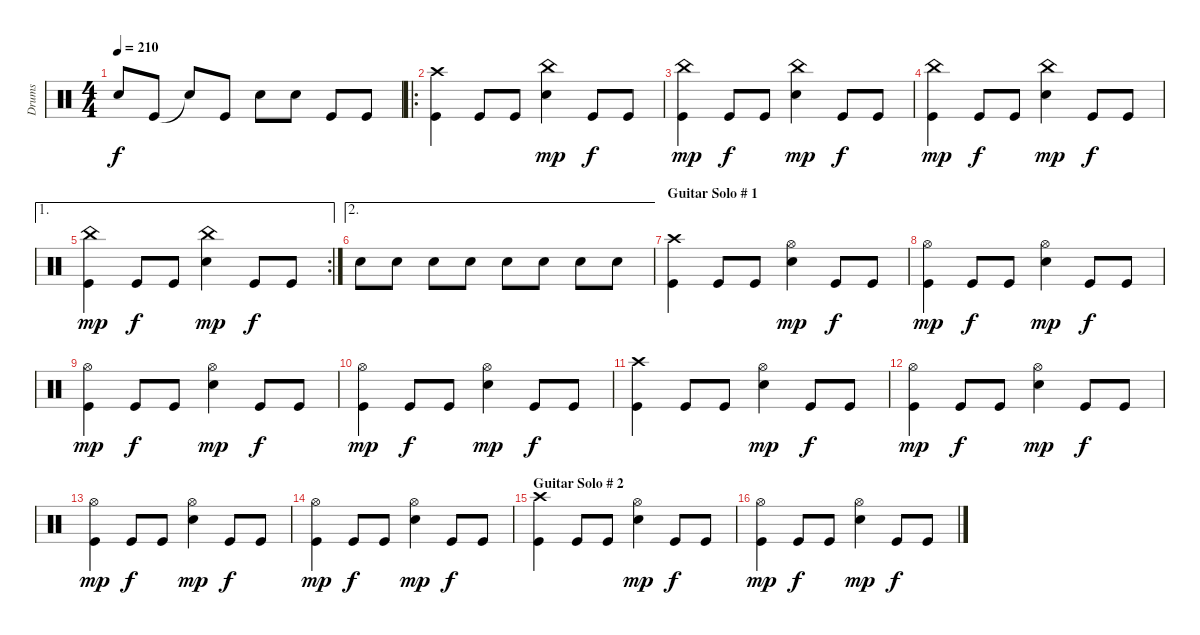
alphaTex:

\track ("Drums" "Drums") {instrument percussion}
\staff {score}
\articulation defaults
\ts (4 4)
\tempo 210
\clef neutral
\ks c "Electric Snare (hit)".8{dy f} "Kick (hit)".8 "Snare (hit)"{t}.8 "Kick (hit)".8 "Electric Snare (hit)".8 "Electric Snare (hit)".8 "Kick (hit)".8 "Kick (hit)".8
|
\ro
("Crash high (hit)" "Kick (hit)").4 "Kick (hit)".8 "Kick (hit)".8 ("China (hit)" "Electric Snare (hit)").4{dy mp} "Kick (hit)".8{dy f} "Kick (hit)".8 |
("China (hit)" "Kick (hit)").4{dy mp} "Kick (hit)".8{dy f} "Kick (hit)".8 ("China (hit)" "Electric Snare (hit)").4{dy mp} "Kick (hit)".8{dy f} "Kick (hit)".8 |
("China (hit)" "Kick (hit)").4{dy mp} "Kick (hit)".8{dy f} "Kick (hit)".8 ("China (hit)" "Electric Snare (hit)").4{dy mp} "Kick (hit)".8{dy f} "Kick (hit)".8 |
\ae 1
\rc 2
("China (hit)" "Kick (hit)").4{dy mp} "Kick (hit)".8{dy f} "Kick (hit)".8 ("China (hit)" "Electric Snare (hit)").4{dy mp} "Kick (hit)".8{dy f} "Kick (hit)".8 |
\ae 2 "Electric Snare (hit)".8 "Electric Snare (hit)".8 "Electric Snare (hit)".8 "Electric Snare (hit)".8 "Electric Snare (hit)".8 "Electric Snare (hit)".8 "Electric Snare (hit)".8 "Electric Snare (hit)".8
|
\section ("" "Guitar Solo # 1")
("Crash high (hit)" "Kick (hit)").4 "Kick (hit)".8 "Kick (hit)".8 ("Hi-Hat (open)" "Electric Snare (hit)").4{dy mp} "Kick (hit)".8{dy f} "Kick (hit)".8 |
("Hi-Hat (open)" "Kick (hit)").4{dy mp} "Kick (hit)".8{dy f} "Kick (hit)".8 ("Hi-Hat (open)" "Electric Snare (hit)").4{dy mp} "Kick (hit)".8{dy f} "Kick (hit)".8 |
("Hi-Hat (open)" "Kick (hit)").4{dy mp} "Kick (hit)".8{dy f} "Kick (hit)".8 ("Hi-Hat (open)" "Electric Snare (hit)").4{dy mp} "Kick (hit)".8{dy f} "Kick (hit)".8 |
("Hi-Hat (open)" "Kick (hit)").4{dy mp} "Kick (hit)".8{dy f} "Kick (hit)".8 ("Hi-Hat (open)" "Electric Snare (hit)").4{dy mp} "Kick (hit)".8{dy f} "Kick (hit)".8 |
("Crash high (hit)" "Kick (hit)").4 "Kick (hit)".8 "Kick (hit)".8 ("Hi-Hat (open)" "Electric Snare (hit)").4{dy mp} "Kick (hit)".8{dy f} "Kick (hit)".8 |
("Hi-Hat (open)" "Kick (hit)").4{dy mp} "Kick (hit)".8{dy f} "Kick (hit)".8 ("Hi-Hat (open)" "Electric Snare (hit)").4{dy mp} "Kick (hit)".8{dy f} "Kick (hit)".8 |
("Hi-Hat (open)" "Kick (hit)").4{dy mp} "Kick (hit)".8{dy f} "Kick (hit)".8 ("Hi-Hat (open)" "Electric Snare (hit)").4{dy mp} "Kick (hit)".8{dy f} "Kick (hit)".8 |
("Hi-Hat (open)" "Kick (hit)").4{dy mp} "Kick (hit)".8{dy f} "Kick (hit)".8 ("Hi-Hat (open)" "Electric Snare (hit)").4{dy mp} "Kick (hit)".8{dy f} "Kick (hit)".8 |
\section ("" "Guitar Solo # 2")
("Crash high (hit)" "Kick (hit)").4 "Kick (hit)".8 "Kick (hit)".8 ("Hi-Hat (open)" "Electric Snare (hit)").4{dy mp} "Kick (hit)".8{dy f} "Kick (hit)".8 |
("Hi-Hat (open)" "Kick (hit)").4{dy mp} "Kick (hit)".8{dy f} "Kick (hit)".8 ("Hi-Hat (open)" "Electric Snare (hit)").4{dy mp} "Kick (hit)".8{dy f} "Kick (hit)".8
